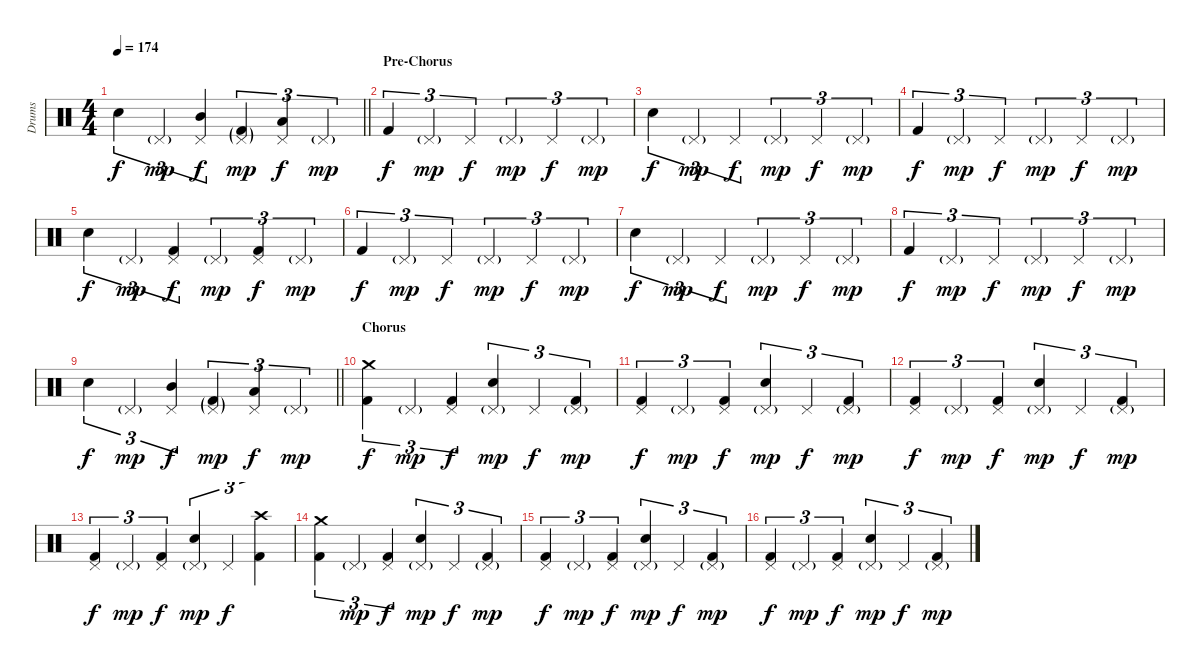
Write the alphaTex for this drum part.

\track ("Drums" "Drums") {instrument percussion}
\staff {score}
\articulation defaults
\ts (4 4)
\tempo 174
\clef neutral
\barLineRight lightlight
\ks c "Electric Snare (hit)".4{tu (3 2) dy f} "Pedal Hi-Hat (hit)"{g}.4{tu (3 2) dy mp}
("Pedal Hi-Hat (hit)" "Mid Tom (hit)").4{tu (3 2) dy f} ("Pedal Hi-Hat (hit)"{g} "Kick (hit) 2"{g}).4{tu (3 2) dy mp} ("Pedal Hi-Hat (hit)" "Low Tom (hit)").4{tu (3 2) dy f} "Pedal Hi-Hat (hit)"{g}.4{tu (3 2) dy mp} |
\section ("" "Pre-Chorus")
"Kick (hit) 2".4{tu (3 2) dy f} "Pedal Hi-Hat (hit)"{g}.4{tu (3 2) dy mp} "Pedal Hi-Hat (hit)".4{tu (3 2) dy f} "Pedal Hi-Hat (hit)"{g}.4{tu (3 2) dy mp} "Pedal Hi-Hat (hit)".4{tu (3 2) dy f} "Pedal Hi-Hat (hit)"{g}.4{tu (3 2) dy mp} |
"Electric Snare (hit)".4{tu (3 2) dy f} "Pedal Hi-Hat (hit)"{g}.4{tu (3 2) dy mp} "Pedal Hi-Hat (hit)".4{tu (3 2) dy f} "Pedal Hi-Hat (hit)"{g}.4{tu (3 2) dy mp} "Pedal Hi-Hat (hit)".4{tu (3 2) dy f} "Pedal Hi-Hat (hit)"{g}.4{tu (3 2) dy mp} |
"Kick (hit) 2".4{tu (3 2) dy f} "Pedal Hi-Hat (hit)"{g}.4{tu (3 2) dy mp} "Pedal Hi-Hat (hit)".4{tu (3 2) dy f} "Pedal Hi-Hat (hit)"{g}.4{tu (3 2) dy mp} "Pedal Hi-Hat (hit)".4{tu (3 2) dy f} "Pedal Hi-Hat (hit)"{g}.4{tu (3 2) dy mp} |
"Electric Snare (hit)".4{tu (3 2) dy f} "Pedal Hi-Hat (hit)"{g}.4{tu (3 2) dy mp} ("Pedal Hi-Hat (hit)" "Kick (hit) 2").4{tu (3 2) dy f} "Pedal Hi-Hat (hit)"{g}.4{tu (3 2) dy mp} ("Pedal Hi-Hat (hit)" "Kick (hit) 2").4{tu (3 2) dy f} "Pedal Hi-Hat (hit)"{g}.4{tu (3 2) dy mp} |
"Kick (hit) 2".4{tu (3 2) dy f} "Pedal Hi-Hat (hit)"{g}.4{tu (3 2) dy mp} "Pedal Hi-Hat (hit)".4{tu (3 2) dy f} "Pedal Hi-Hat (hit)"{g}.4{tu (3 2) dy mp} "Pedal Hi-Hat (hit)".4{tu (3 2) dy f} "Pedal Hi-Hat (hit)"{g}.4{tu (3 2) dy mp} |
"Electric Snare (hit)".4{tu (3 2) dy f} "Pedal Hi-Hat (hit)"{g}.4{tu (3 2) dy mp} "Pedal Hi-Hat (hit)".4{tu (3 2) dy f} "Pedal Hi-Hat (hit)"{g}.4{tu (3 2) dy mp} "Pedal Hi-Hat (hit)".4{tu (3 2) dy f} "Pedal Hi-Hat (hit)"{g}.4{tu (3 2) dy mp} |
"Kick (hit) 2".4{tu (3 2) dy f} "Pedal Hi-Hat (hit)"{g}.4{tu (3 2) dy mp} "Pedal Hi-Hat (hit)".4{tu (3 2) dy f} "Pedal Hi-Hat (hit)"{g}.4{tu (3 2) dy mp} "Pedal Hi-Hat (hit)".4{tu (3 2) dy f} "Pedal Hi-Hat (hit)"{g}.4{tu (3 2) dy mp} |
\barLineRight lightlight "Electric Snare (hit)".4{tu (3 2) dy f} "Pedal Hi-Hat (hit)"{g}.4{tu (3 2) dy mp}
("Pedal Hi-Hat (hit)" "Mid Tom (hit)").4{tu (3 2) dy f} ("Pedal Hi-Hat (hit)"{g} "Kick (hit) 2"{g}).4{tu (3 2) dy mp} ("Pedal Hi-Hat (hit)" "Low Tom (hit)").4{tu (3 2) dy f} "Pedal Hi-Hat (hit)"{g}.4{tu (3 2) dy mp} |
\section ("" "Chorus")
("Crash medium (hit)" "Kick (hit) 2").4{tu (3 2) dy f} "Pedal Hi-Hat (hit)"{g}.4{tu (3 2) dy mp} ("Pedal Hi-Hat (hit)" "Kick (hit) 2").4{tu (3 2) dy f} ("Pedal Hi-Hat (hit)"{g} "Electric Snare (hit)").4{tu (3 2) dy mp} "Pedal Hi-Hat (hit)".4{tu (3 2) dy f} ("Pedal Hi-Hat (hit)"{g} "Kick (hit) 2").4{tu (3 2) dy mp} |
("Pedal Hi-Hat (hit)" "Kick (hit) 2").4{tu (3 2) dy f} "Pedal Hi-Hat (hit)"{g}.4{tu (3 2) dy mp} ("Pedal Hi-Hat (hit)" "Kick (hit) 2").4{tu (3 2) dy f} ("Pedal Hi-Hat (hit)"{g} "Electric Snare (hit)").4{tu (3 2) dy mp} "Pedal Hi-Hat (hit)".4{tu (3 2) dy f} ("Pedal Hi-Hat (hit)"{g} "Kick (hit) 2").4{tu (3 2) dy mp} |
("Pedal Hi-Hat (hit)" "Kick (hit) 2").4{tu (3 2) dy f} "Pedal Hi-Hat (hit)"{g}.4{tu (3 2) dy mp} ("Pedal Hi-Hat (hit)" "Kick (hit) 2").4{tu (3 2) dy f} ("Pedal Hi-Hat (hit)"{g} "Electric Snare (hit)").4{tu (3 2) dy mp} "Pedal Hi-Hat (hit)".4{tu (3 2) dy f} ("Pedal Hi-Hat (hit)"{g} "Kick (hit) 2").4{tu (3 2) dy mp} |
("Pedal Hi-Hat (hit)" "Kick (hit) 2").4{tu (3 2) dy f} "Pedal Hi-Hat (hit)"{g}.4{tu (3 2) dy mp} ("Pedal Hi-Hat (hit)" "Kick (hit) 2").4{tu (3 2) dy f} ("Pedal Hi-Hat (hit)"{g} "Electric Snare (hit)").4{tu (3 2) dy mp} "Pedal Hi-Hat (hit)".4{tu (3 2) dy f} ("Crash high (hit)" "Kick (hit) 2").4{tu (3 2)} |
("Crash medium (hit)" "Kick (hit) 2").4{tu (3 2)} "Pedal Hi-Hat (hit)"{g}.4{tu (3 2) dy mp} ("Pedal Hi-Hat (hit)" "Kick (hit) 2").4{tu (3 2) dy f} ("Pedal Hi-Hat (hit)"{g} "Electric Snare (hit)").4{tu (3 2) dy mp} "Pedal Hi-Hat (hit)".4{tu (3 2) dy f} ("Pedal Hi-Hat (hit)"{g} "Kick (hit) 2").4{tu (3 2) dy mp} |
("Pedal Hi-Hat (hit)" "Kick (hit) 2").4{tu (3 2) dy f} "Pedal Hi-Hat (hit)"{g}.4{tu (3 2) dy mp} ("Pedal Hi-Hat (hit)" "Kick (hit) 2").4{tu (3 2) dy f} ("Pedal Hi-Hat (hit)"{g} "Electric Snare (hit)").4{tu (3 2) dy mp} "Pedal Hi-Hat (hit)".4{tu (3 2) dy f} ("Pedal Hi-Hat (hit)"{g} "Kick (hit) 2").4{tu (3 2) dy mp} |
("Pedal Hi-Hat (hit)" "Kick (hit) 2").4{tu (3 2) dy f} "Pedal Hi-Hat (hit)"{g}.4{tu (3 2) dy mp} ("Pedal Hi-Hat (hit)" "Kick (hit) 2").4{tu (3 2) dy f} ("Pedal Hi-Hat (hit)"{g} "Electric Snare (hit)").4{tu (3 2) dy mp} "Pedal Hi-Hat (hit)".4{tu (3 2) dy f} ("Pedal Hi-Hat (hit)"{g} "Kick (hit) 2").4{tu (3 2) dy mp}
